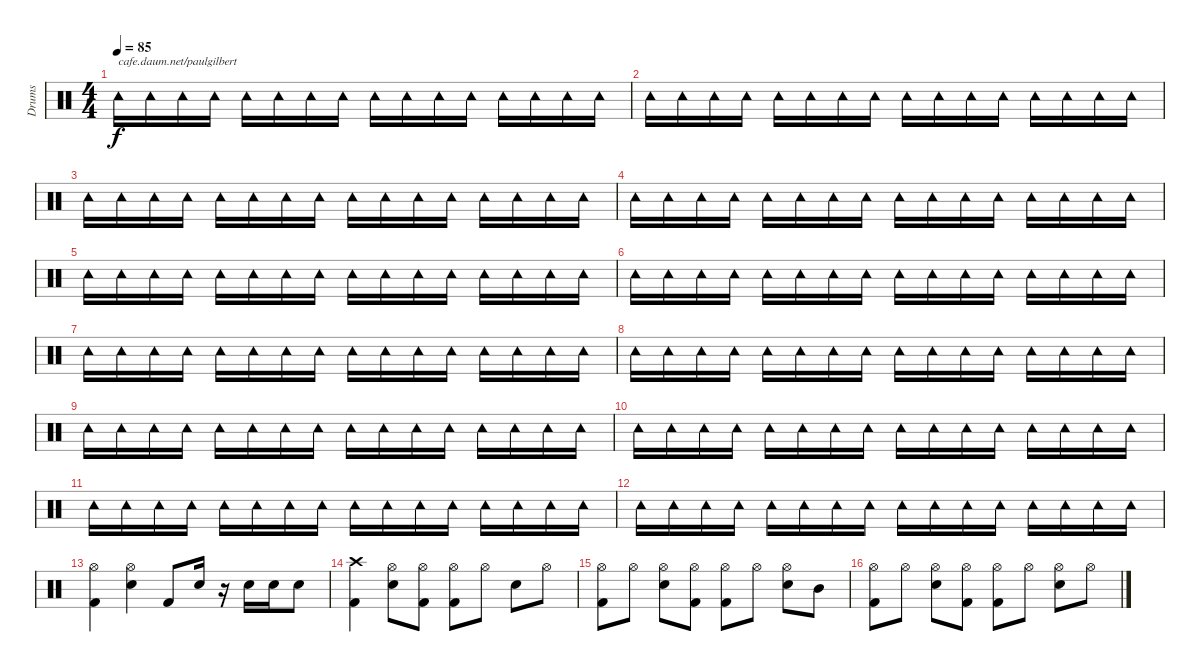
\track ("Drums" "Drums") {instrument percussion}
\staff {score}
\articulation defaults
\ts (4 4)
\tempo 85
\clef neutral
\ks c "Tambourine (hit)".16{txt "cafe.daum.net/paulgilbert" dy f} "Tambourine (hit)".16 "Tambourine (hit)".16 "Tambourine (hit)".16 "Tambourine (hit)".16 "Tambourine (hit)".16 "Tambourine (hit)".16 "Tambourine (hit)".16 "Tambourine (hit)".16 "Tambourine (hit)".16 "Tambourine (hit)".16 "Tambourine (hit)".16 "Tambourine (hit)".16 "Tambourine (hit)".16 "Tambourine (hit)".16 "Tambourine (hit)".16
|
"Tambourine (hit)".16 "Tambourine (hit)".16 "Tambourine (hit)".16 "Tambourine (hit)".16 "Tambourine (hit)".16 "Tambourine (hit)".16 "Tambourine (hit)".16 "Tambourine (hit)".16 "Tambourine (hit)".16 "Tambourine (hit)".16 "Tambourine (hit)".16 "Tambourine (hit)".16 "Tambourine (hit)".16 "Tambourine (hit)".16 "Tambourine (hit)".16 "Tambourine (hit)".16 |
"Tambourine (hit)".16 "Tambourine (hit)".16 "Tambourine (hit)".16 "Tambourine (hit)".16 "Tambourine (hit)".16 "Tambourine (hit)".16 "Tambourine (hit)".16 "Tambourine (hit)".16 "Tambourine (hit)".16 "Tambourine (hit)".16 "Tambourine (hit)".16 "Tambourine (hit)".16 "Tambourine (hit)".16 "Tambourine (hit)".16 "Tambourine (hit)".16 "Tambourine (hit)".16 |
"Tambourine (hit)".16 "Tambourine (hit)".16 "Tambourine (hit)".16 "Tambourine (hit)".16 "Tambourine (hit)".16 "Tambourine (hit)".16 "Tambourine (hit)".16 "Tambourine (hit)".16 "Tambourine (hit)".16 "Tambourine (hit)".16 "Tambourine (hit)".16 "Tambourine (hit)".16 "Tambourine (hit)".16 "Tambourine (hit)".16 "Tambourine (hit)".16 "Tambourine (hit)".16 |
"Tambourine (hit)".16 "Tambourine (hit)".16 "Tambourine (hit)".16 "Tambourine (hit)".16 "Tambourine (hit)".16 "Tambourine (hit)".16 "Tambourine (hit)".16 "Tambourine (hit)".16 "Tambourine (hit)".16 "Tambourine (hit)".16 "Tambourine (hit)".16 "Tambourine (hit)".16 "Tambourine (hit)".16 "Tambourine (hit)".16 "Tambourine (hit)".16 "Tambourine (hit)".16 |
"Tambourine (hit)".16 "Tambourine (hit)".16 "Tambourine (hit)".16 "Tambourine (hit)".16 "Tambourine (hit)".16 "Tambourine (hit)".16 "Tambourine (hit)".16 "Tambourine (hit)".16 "Tambourine (hit)".16 "Tambourine (hit)".16 "Tambourine (hit)".16 "Tambourine (hit)".16 "Tambourine (hit)".16 "Tambourine (hit)".16 "Tambourine (hit)".16 "Tambourine (hit)".16 |
"Tambourine (hit)".16 "Tambourine (hit)".16 "Tambourine (hit)".16 "Tambourine (hit)".16 "Tambourine (hit)".16 "Tambourine (hit)".16 "Tambourine (hit)".16 "Tambourine (hit)".16 "Tambourine (hit)".16 "Tambourine (hit)".16 "Tambourine (hit)".16 "Tambourine (hit)".16 "Tambourine (hit)".16 "Tambourine (hit)".16 "Tambourine (hit)".16 "Tambourine (hit)".16 |
"Tambourine (hit)".16 "Tambourine (hit)".16 "Tambourine (hit)".16 "Tambourine (hit)".16 "Tambourine (hit)".16 "Tambourine (hit)".16 "Tambourine (hit)".16 "Tambourine (hit)".16 "Tambourine (hit)".16 "Tambourine (hit)".16 "Tambourine (hit)".16 "Tambourine (hit)".16 "Tambourine (hit)".16 "Tambourine (hit)".16 "Tambourine (hit)".16 "Tambourine (hit)".16 |
"Tambourine (hit)".16 "Tambourine (hit)".16 "Tambourine (hit)".16 "Tambourine (hit)".16 "Tambourine (hit)".16 "Tambourine (hit)".16 "Tambourine (hit)".16 "Tambourine (hit)".16 "Tambourine (hit)".16 "Tambourine (hit)".16 "Tambourine (hit)".16 "Tambourine (hit)".16 "Tambourine (hit)".16 "Tambourine (hit)".16 "Tambourine (hit)".16 "Tambourine (hit)".16 |
"Tambourine (hit)".16 "Tambourine (hit)".16 "Tambourine (hit)".16 "Tambourine (hit)".16 "Tambourine (hit)".16 "Tambourine (hit)".16 "Tambourine (hit)".16 "Tambourine (hit)".16 "Tambourine (hit)".16 "Tambourine (hit)".16 "Tambourine (hit)".16 "Tambourine (hit)".16 "Tambourine (hit)".16 "Tambourine (hit)".16 "Tambourine (hit)".16 "Tambourine (hit)".16 |
"Tambourine (hit)".16 "Tambourine (hit)".16 "Tambourine (hit)".16 "Tambourine (hit)".16 "Tambourine (hit)".16 "Tambourine (hit)".16 "Tambourine (hit)".16 "Tambourine (hit)".16 "Tambourine (hit)".16 "Tambourine (hit)".16 "Tambourine (hit)".16 "Tambourine (hit)".16 "Tambourine (hit)".16 "Tambourine (hit)".16 "Tambourine (hit)".16 "Tambourine (hit)".16 |
"Tambourine (hit)".16 "Tambourine (hit)".16 "Tambourine (hit)".16 "Tambourine (hit)".16 "Tambourine (hit)".16 "Tambourine (hit)".16 "Tambourine (hit)".16 "Tambourine (hit)".16 "Tambourine (hit)".16 "Tambourine (hit)".16 "Tambourine (hit)".16 "Tambourine (hit)".16 "Tambourine (hit)".16 "Tambourine (hit)".16 "Tambourine (hit)".16 "Tambourine (hit)".16 |
("Hi-Hat (open)" "Kick (hit) 2").4 ("Hi-Hat (open)" "Snare (hit) 2").4 "Kick (hit) 2".8 "Snare (hit) 2".16 r.16 "Snare (hit) 2".16 "Snare (hit) 2".16 "Snare (hit) 2".8 |
("Crash high (hit)" "Kick (hit) 2").4 ("Hi-Hat (open)" "Snare (hit) 2").8 ("Hi-Hat (open)" "Kick (hit) 2").8 ("Hi-Hat (open)" "Kick (hit) 2").8 "Hi-Hat (open)".8 "Snare (hit) 2".8 "Hi-Hat (open)".8 |
("Hi-Hat (open)" "Kick (hit) 2").8 "Hi-Hat (open)".8 ("Hi-Hat (open)" "Snare (hit) 2").8 ("Hi-Hat (open)" "Kick (hit) 2").8 ("Hi-Hat (open)" "Kick (hit) 2").8 "Hi-Hat (open)".8 ("Hi-Hat (open)" "Snare (hit) 2").8 "Mid Tom (hit)".8 |
("Hi-Hat (open)" "Kick (hit) 2").8 "Hi-Hat (open)".8 ("Hi-Hat (open)" "Snare (hit) 2").8 ("Hi-Hat (open)" "Kick (hit) 2").8 ("Hi-Hat (open)" "Kick (hit) 2").8 "Hi-Hat (open)".8 ("Hi-Hat (open)" "Snare (hit) 2").8 "Hi-Hat (open)".8
